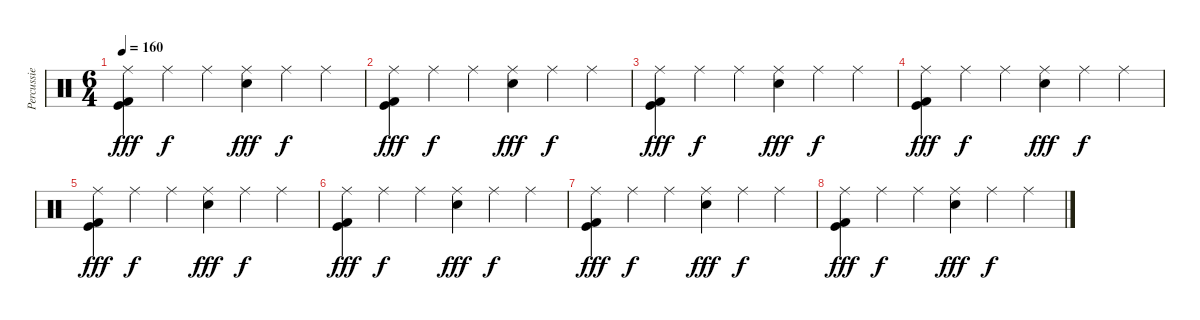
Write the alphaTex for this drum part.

\track ("Percussie" "Percussie") {instrument percussion}
\staff {score}
\articulation defaults
\ts (6 4)
\tempo 160
\clef neutral
\ks c
("Ride (middle)" "Kick (hit)" "Kick (hit) 2").4{dy fff} "Ride (middle)".4{dy f} "Ride (middle)".4 ("Ride (middle)" "Snare (hit) 2").4{dy fff} "Ride (middle)".4{dy f} "Ride (middle)".4 |
("Ride (middle)" "Kick (hit)" "Kick (hit) 2").4{dy fff} "Ride (middle)".4{dy f} "Ride (middle)".4 ("Ride (middle)" "Snare (hit) 2").4{dy fff} "Ride (middle)".4{dy f} "Ride (middle)".4 |
("Ride (middle)" "Kick (hit)" "Kick (hit) 2").4{dy fff} "Ride (middle)".4{dy f} "Ride (middle)".4 ("Ride (middle)" "Snare (hit) 2").4{dy fff} "Ride (middle)".4{dy f} "Ride (middle)".4 |
("Ride (middle)" "Kick (hit)" "Kick (hit) 2").4{dy fff} "Ride (middle)".4{dy f} "Ride (middle)".4 ("Ride (middle)" "Snare (hit) 2").4{dy fff} "Ride (middle)".4{dy f} "Ride (middle)".4 |
("Ride (middle)" "Kick (hit)" "Kick (hit) 2").4{dy fff} "Ride (middle)".4{dy f} "Ride (middle)".4 ("Ride (middle)" "Snare (hit) 2").4{dy fff} "Ride (middle)".4{dy f} "Ride (middle)".4 |
("Ride (middle)" "Kick (hit)" "Kick (hit) 2").4{dy fff} "Ride (middle)".4{dy f} "Ride (middle)".4 ("Ride (middle)" "Snare (hit) 2").4{dy fff} "Ride (middle)".4{dy f} "Ride (middle)".4 |
("Ride (middle)" "Kick (hit)" "Kick (hit) 2").4{dy fff} "Ride (middle)".4{dy f} "Ride (middle)".4 ("Ride (middle)" "Snare (hit) 2").4{dy fff} "Ride (middle)".4{dy f} "Ride (middle)".4 |
("Ride (middle)" "Kick (hit)" "Kick (hit) 2").4{dy fff} "Ride (middle)".4{dy f} "Ride (middle)".4 ("Ride (middle)" "Snare (hit) 2").4{dy fff} "Ride (middle)".4{dy f} "Ride (middle)".4
